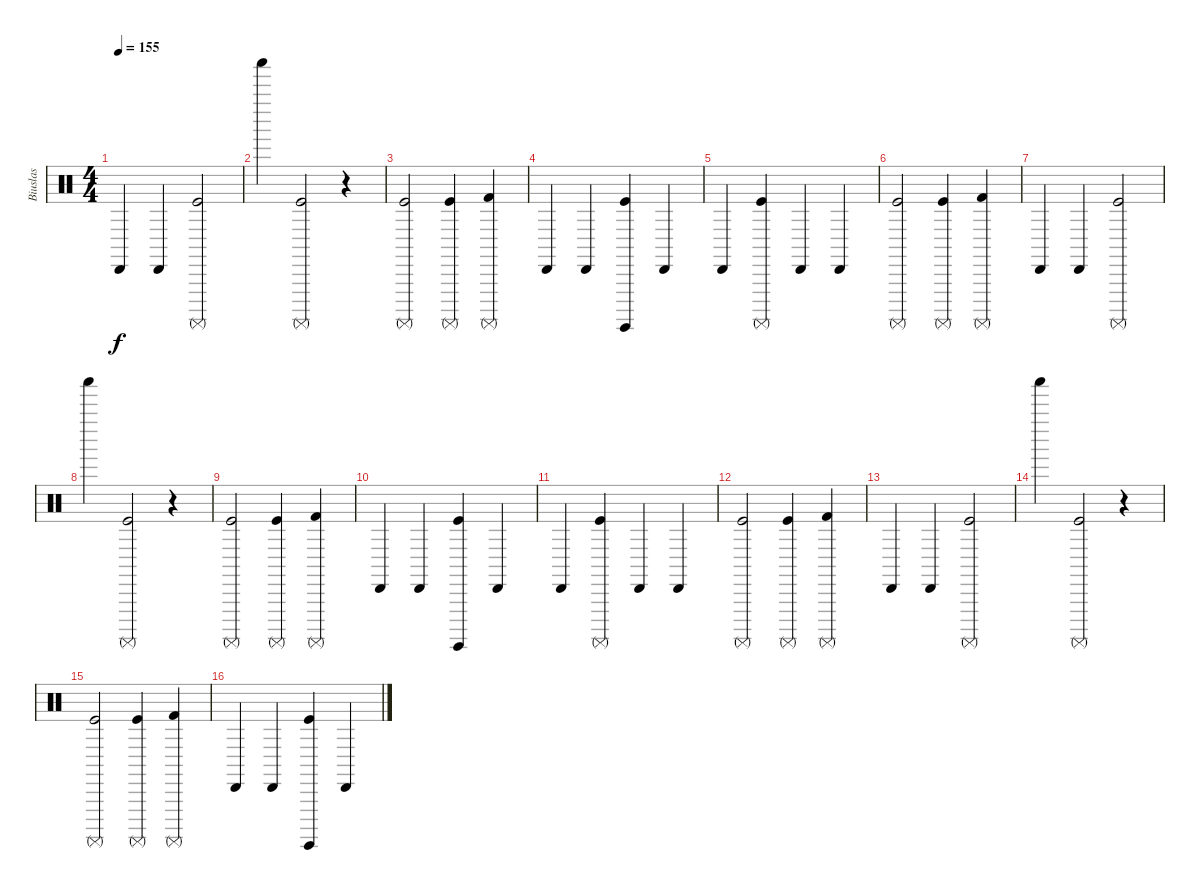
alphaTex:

\track ("Biuslas" "Biuslas") {instrument percussion}
\staff {score}
\articulation defaults
\ts (4 4)
\tempo 155
\clef neutral
\ks c "Cabasa (hit)".4{dy f} "Cabasa (hit)".4
("Surdo (mute)" "Kick (hit)").2 |
"Shaker (hit)".4 ("Surdo (mute)" "Kick (hit)").2 r.4 |
("Surdo (mute)" "Kick (hit)").2 ("Surdo (mute)" "Kick (hit)").4 ("Surdo (mute)" "Kick (hit) 2").4 |
"Cabasa (hit)".4 "Cabasa (hit)".4 ("Surdo (hit)" "Kick (hit)").4 "Cabasa (hit)".4 |
"Cabasa (hit)".4 ("Surdo (mute)" "Kick (hit)").4 "Cabasa (hit)".4 "Cabasa (hit)".4 |
("Surdo (mute)" "Kick (hit)").2 ("Surdo (mute)" "Kick (hit)").4 ("Surdo (mute)" "Kick (hit) 2").4 |
"Cabasa (hit)".4 "Cabasa (hit)".4 ("Surdo (mute)" "Kick (hit)").2 |
"Shaker (hit)".4 ("Surdo (mute)" "Kick (hit)").2 r.4 |
("Surdo (mute)" "Kick (hit)").2 ("Surdo (mute)" "Kick (hit)").4 ("Surdo (mute)" "Kick (hit) 2").4 |
"Cabasa (hit)".4 "Cabasa (hit)".4 ("Surdo (hit)" "Kick (hit)").4 "Cabasa (hit)".4 |
"Cabasa (hit)".4 ("Surdo (mute)" "Kick (hit)").4 "Cabasa (hit)".4 "Cabasa (hit)".4 |
("Surdo (mute)" "Kick (hit)").2 ("Surdo (mute)" "Kick (hit)").4 ("Surdo (mute)" "Kick (hit) 2").4 |
"Cabasa (hit)".4 "Cabasa (hit)".4 ("Surdo (mute)" "Kick (hit)").2 |
"Shaker (hit)".4 ("Surdo (mute)" "Kick (hit)").2 r.4 |
("Surdo (mute)" "Kick (hit)").2 ("Surdo (mute)" "Kick (hit)").4 ("Surdo (mute)" "Kick (hit) 2").4 |
"Cabasa (hit)".4 "Cabasa (hit)".4 ("Surdo (hit)" "Kick (hit)").4 "Cabasa (hit)".4
